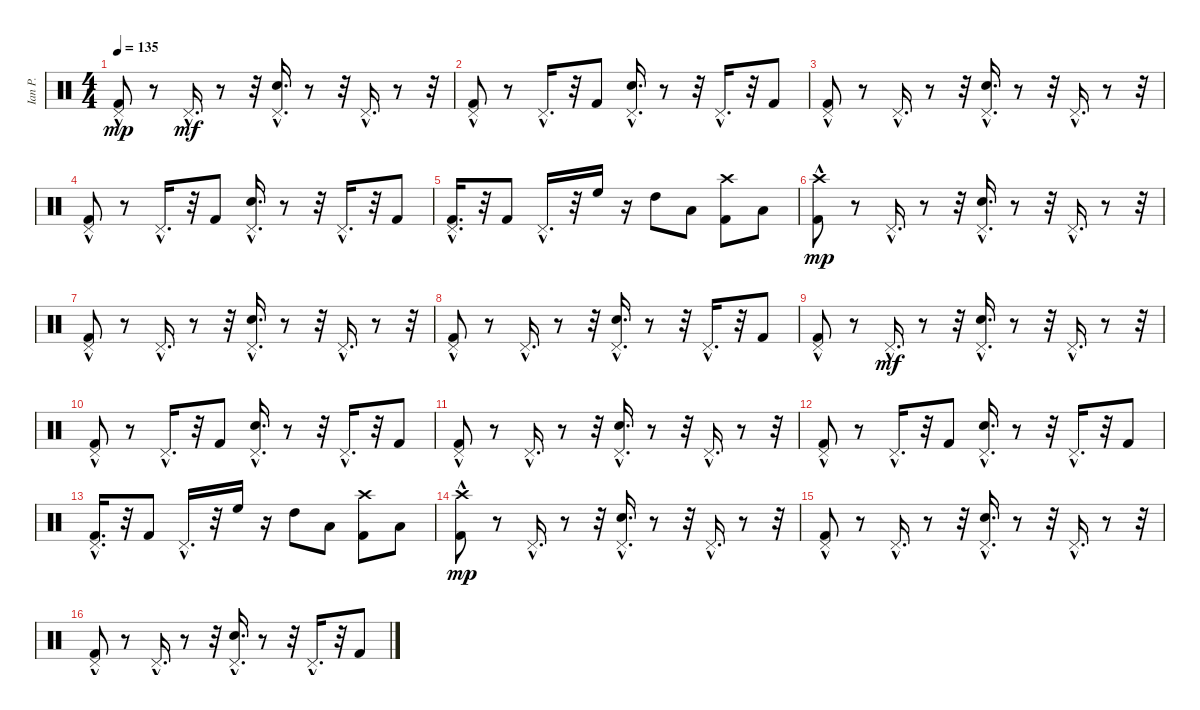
\track ("Ian P." "Ian P.") {instrument percussion}
\staff {score}
\articulation defaults
\ts (4 4)
\tempo 135
\clef neutral
\ks c
("Kick (hit) 2" "Pedal Hi-Hat (hit)"{hac}).8{dy mp} r.8 "Pedal Hi-Hat (hit)"{hac}.16{d dy mf} r.8 r.32 ("Snare (hit) 2"{hac} "Pedal Hi-Hat (hit)"{hac}).16{d} r.8 r.32 "Pedal Hi-Hat (hit)"{hac}.16{d} r.8 r.32 |
("Kick (hit) 2" "Pedal Hi-Hat (hit)"{hac}).8 r.8 "Pedal Hi-Hat (hit)"{hac}.16{d} r.32 "Kick (hit) 2".8 ("Snare (hit) 2"{hac} "Pedal Hi-Hat (hit)"{hac}).16{d} r.8 r.32 "Pedal Hi-Hat (hit)"{hac}.16{d} r.32 "Kick (hit) 2".8 |
("Kick (hit) 2" "Pedal Hi-Hat (hit)"{hac}).8 r.8 "Pedal Hi-Hat (hit)"{hac}.16{d} r.8 r.32 ("Snare (hit) 2"{hac} "Pedal Hi-Hat (hit)"{hac}).16{d} r.8 r.32 "Pedal Hi-Hat (hit)"{hac}.16{d} r.8 r.32 |
("Kick (hit) 2" "Pedal Hi-Hat (hit)"{hac}).8 r.8 "Pedal Hi-Hat (hit)"{hac}.16{d} r.32 "Kick (hit) 2".8 ("Snare (hit) 2"{hac} "Pedal Hi-Hat (hit)"{hac}).16{d} r.8 r.32 "Pedal Hi-Hat (hit)"{hac}.16{d} r.32 "Kick (hit) 2".8 |
("Kick (hit) 2" "Pedal Hi-Hat (hit)"{hac}).16{d} r.32 "Kick (hit) 2".8 "Pedal Hi-Hat (hit)"{hac}.16{d} r.32 "High Floor Tom (hit)".16 r.16 "High Tom (hit)".8 "Low Tom (hit)".8 ("Kick (hit) 2" "Crash high (hit)").8 "Low Tom (hit)".8 |
("Kick (hit) 2" "Crash high (hit)"{hac}).8{dy mp} r.8 "Pedal Hi-Hat (hit)"{hac}.16{d} r.8 r.32 ("Snare (hit) 2"{hac} "Pedal Hi-Hat (hit)"{hac}).16{d} r.8 r.32 "Pedal Hi-Hat (hit)"{hac}.16{d} r.8 r.32 |
("Kick (hit) 2" "Pedal Hi-Hat (hit)"{hac}).8 r.8 "Pedal Hi-Hat (hit)"{hac}.16{d} r.8 r.32 ("Snare (hit) 2"{hac} "Pedal Hi-Hat (hit)"{hac}).16{d} r.8 r.32 "Pedal Hi-Hat (hit)"{hac}.16{d} r.8 r.32 |
("Kick (hit) 2" "Pedal Hi-Hat (hit)"{hac}).8 r.8 "Pedal Hi-Hat (hit)"{hac}.16{d} r.8 r.32 ("Snare (hit) 2"{hac} "Pedal Hi-Hat (hit)"{hac}).16{d} r.8 r.32 "Pedal Hi-Hat (hit)"{hac}.16{d} r.32 "Kick (hit) 2".8 |
("Kick (hit) 2" "Pedal Hi-Hat (hit)"{hac}).8 r.8 "Pedal Hi-Hat (hit)"{hac}.16{d dy mf} r.8 r.32 ("Snare (hit) 2"{hac} "Pedal Hi-Hat (hit)"{hac}).16{d} r.8 r.32 "Pedal Hi-Hat (hit)"{hac}.16{d} r.8 r.32 |
("Kick (hit) 2" "Pedal Hi-Hat (hit)"{hac}).8 r.8 "Pedal Hi-Hat (hit)"{hac}.16{d} r.32 "Kick (hit) 2".8 ("Snare (hit) 2"{hac} "Pedal Hi-Hat (hit)"{hac}).16{d} r.8 r.32 "Pedal Hi-Hat (hit)"{hac}.16{d} r.32 "Kick (hit) 2".8 |
("Kick (hit) 2" "Pedal Hi-Hat (hit)"{hac}).8 r.8 "Pedal Hi-Hat (hit)"{hac}.16{d} r.8 r.32 ("Snare (hit) 2"{hac} "Pedal Hi-Hat (hit)"{hac}).16{d} r.8 r.32 "Pedal Hi-Hat (hit)"{hac}.16{d} r.8 r.32 |
("Kick (hit) 2" "Pedal Hi-Hat (hit)"{hac}).8 r.8 "Pedal Hi-Hat (hit)"{hac}.16{d} r.32 "Kick (hit) 2".8 ("Snare (hit) 2"{hac} "Pedal Hi-Hat (hit)"{hac}).16{d} r.8 r.32 "Pedal Hi-Hat (hit)"{hac}.16{d} r.32 "Kick (hit) 2".8 |
("Kick (hit) 2" "Pedal Hi-Hat (hit)"{hac}).16{d} r.32 "Kick (hit) 2".8 "Pedal Hi-Hat (hit)"{hac}.16{d} r.32 "High Floor Tom (hit)".16 r.16 "High Tom (hit)".8 "Low Tom (hit)".8 ("Kick (hit) 2" "Crash high (hit)").8 "Low Tom (hit)".8 |
("Kick (hit) 2" "Crash high (hit)"{hac}).8{dy mp} r.8 "Pedal Hi-Hat (hit)"{hac}.16{d} r.8 r.32 ("Snare (hit) 2"{hac} "Pedal Hi-Hat (hit)"{hac}).16{d} r.8 r.32 "Pedal Hi-Hat (hit)"{hac}.16{d} r.8 r.32 |
("Kick (hit) 2" "Pedal Hi-Hat (hit)"{hac}).8 r.8 "Pedal Hi-Hat (hit)"{hac}.16{d} r.8 r.32 ("Snare (hit) 2"{hac} "Pedal Hi-Hat (hit)"{hac}).16{d} r.8 r.32 "Pedal Hi-Hat (hit)"{hac}.16{d} r.8 r.32 |
("Kick (hit) 2" "Pedal Hi-Hat (hit)"{hac}).8 r.8 "Pedal Hi-Hat (hit)"{hac}.16{d} r.8 r.32 ("Snare (hit) 2"{hac} "Pedal Hi-Hat (hit)"{hac}).16{d} r.8 r.32 "Pedal Hi-Hat (hit)"{hac}.16{d} r.32 "Kick (hit) 2".8
